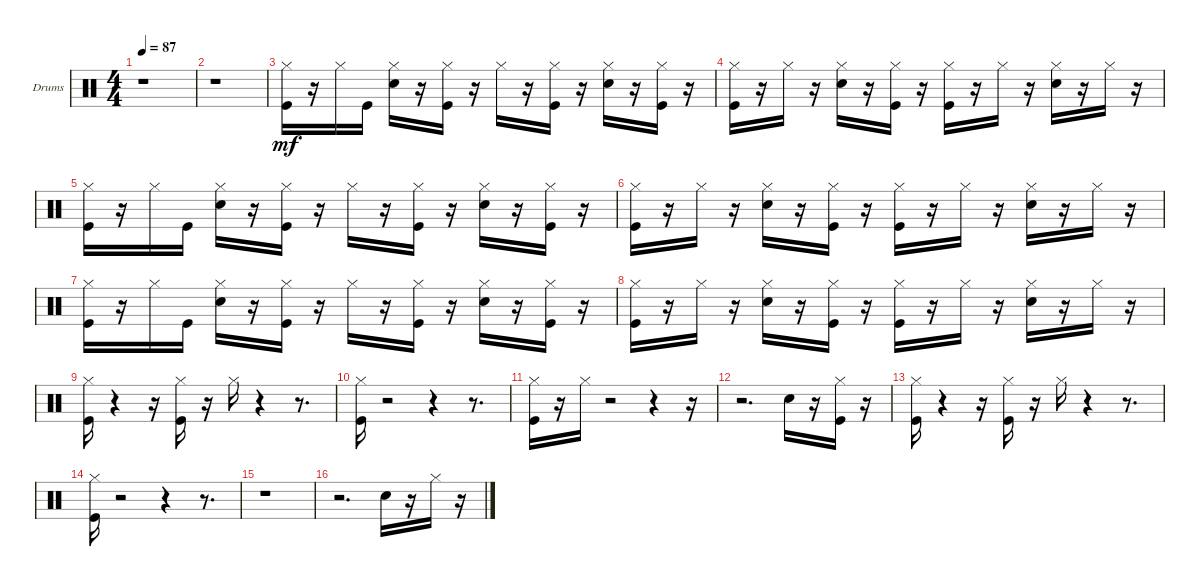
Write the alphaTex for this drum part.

\bracketExtendMode groupsimilarinstruments
\firstSystemTrackNameOrientation horizontal
\otherSystemsTrackNameOrientation horizontal
\track ("MIDI out" "Drums") {instrument percussion}
\staff {score}
\articulation defaults
\ts (4 4)
\tempo 87
\clef neutral
\ks c
r.1{dy mf} |
r.1 |
("Hi-Hat (closed)" "Kick (hit)").16 r.16 "Hi-Hat (closed)".16 "Kick (hit)".16 ("Hi-Hat (closed)" "Snare (hit) 2").16 r.16 ("Kick (hit)" "Hi-Hat (closed)").16 r.16 "Hi-Hat (closed)".16 r.16 ("Kick (hit)" "Hi-Hat (closed)").16 r.16 ("Hi-Hat (closed)" "Snare (hit) 2").16 r.16 ("Hi-Hat (closed)" "Kick (hit)").16 r.16 |
("Hi-Hat (closed)" "Kick (hit)").16 r.16 "Hi-Hat (closed)".16 r.16 ("Hi-Hat (closed)" "Snare (hit) 2").16 r.16 ("Hi-Hat (closed)" "Kick (hit)").16 r.16 ("Kick (hit)" "Hi-Hat (closed)").16 r.16 "Hi-Hat (closed)".16 r.16 ("Hi-Hat (closed)" "Snare (hit) 2").16 r.16 "Hi-Hat (closed)".16 r.16 |
("Kick (hit)" "Hi-Hat (closed)").16 r.16 "Hi-Hat (closed)".16 "Kick (hit)".16 ("Snare (hit) 2" "Hi-Hat (closed)").16 r.16 ("Kick (hit)" "Hi-Hat (closed)").16 r.16 "Hi-Hat (closed)".16 r.16 ("Kick (hit)" "Hi-Hat (closed)").16 r.16 ("Snare (hit) 2" "Hi-Hat (closed)").16 r.16 ("Hi-Hat (closed)" "Kick (hit)").16 r.16 |
("Hi-Hat (closed)" "Kick (hit)").16 r.16 "Hi-Hat (closed)".16 r.16 ("Hi-Hat (closed)" "Snare (hit) 2").16 r.16 ("Hi-Hat (closed)" "Kick (hit)").16 r.16 ("Kick (hit)" "Hi-Hat (closed)").16 r.16 "Hi-Hat (closed)".16 r.16 ("Hi-Hat (closed)" "Snare (hit) 2").16 r.16 "Hi-Hat (closed)".16 r.16 |
("Kick (hit)" "Hi-Hat (closed)").16 r.16 "Hi-Hat (closed)".16 "Kick (hit)".16 ("Snare (hit) 2" "Hi-Hat (closed)").16 r.16 ("Kick (hit)" "Hi-Hat (closed)").16 r.16 "Hi-Hat (closed)".16 r.16 ("Kick (hit)" "Hi-Hat (closed)").16 r.16 ("Snare (hit) 2" "Hi-Hat (closed)").16 r.16 ("Hi-Hat (closed)" "Kick (hit)").16 r.16 |
("Hi-Hat (closed)" "Kick (hit)").16 r.16 "Hi-Hat (closed)".16 r.16 ("Snare (hit) 2" "Hi-Hat (closed)").16 r.16 ("Kick (hit)" "Hi-Hat (closed)").16 r.16 ("Hi-Hat (closed)" "Kick (hit)").16 r.16 "Hi-Hat (closed)".16 r.16 ("Hi-Hat (closed)" "Snare (hit) 2").16 r.16 "Hi-Hat (closed)".16 r.16 |
("Kick (hit)" "Hi-Hat (closed)").16 r.4 r.16 ("Kick (hit)" "Hi-Hat (closed)").16 r.16 "Hi-Hat (closed)".16 r.4 r.8{d} |
("Kick (hit)" "Hi-Hat (closed)").16 r.2 r.4 r.8{d} |
("Kick (hit)" "Hi-Hat (closed)").16 r.16 "Hi-Hat (closed)".16 r.2 r.4 r.16 |
r.2{d} "Snare (hit) 2".16 r.16 ("Hi-Hat (closed)" "Kick (hit)").16 r.16 |
("Kick (hit)" "Hi-Hat (closed)").16 r.4 r.16 ("Kick (hit)" "Hi-Hat (closed)").16 r.16 "Hi-Hat (closed)".16 r.4 r.8{d} |
("Kick (hit)" "Hi-Hat (closed)").16 r.2 r.4 r.8{d} |
r.1 |
r.2{d} "Snare (hit) 2".16 r.16 "Hi-Hat (closed)".16 r.16
